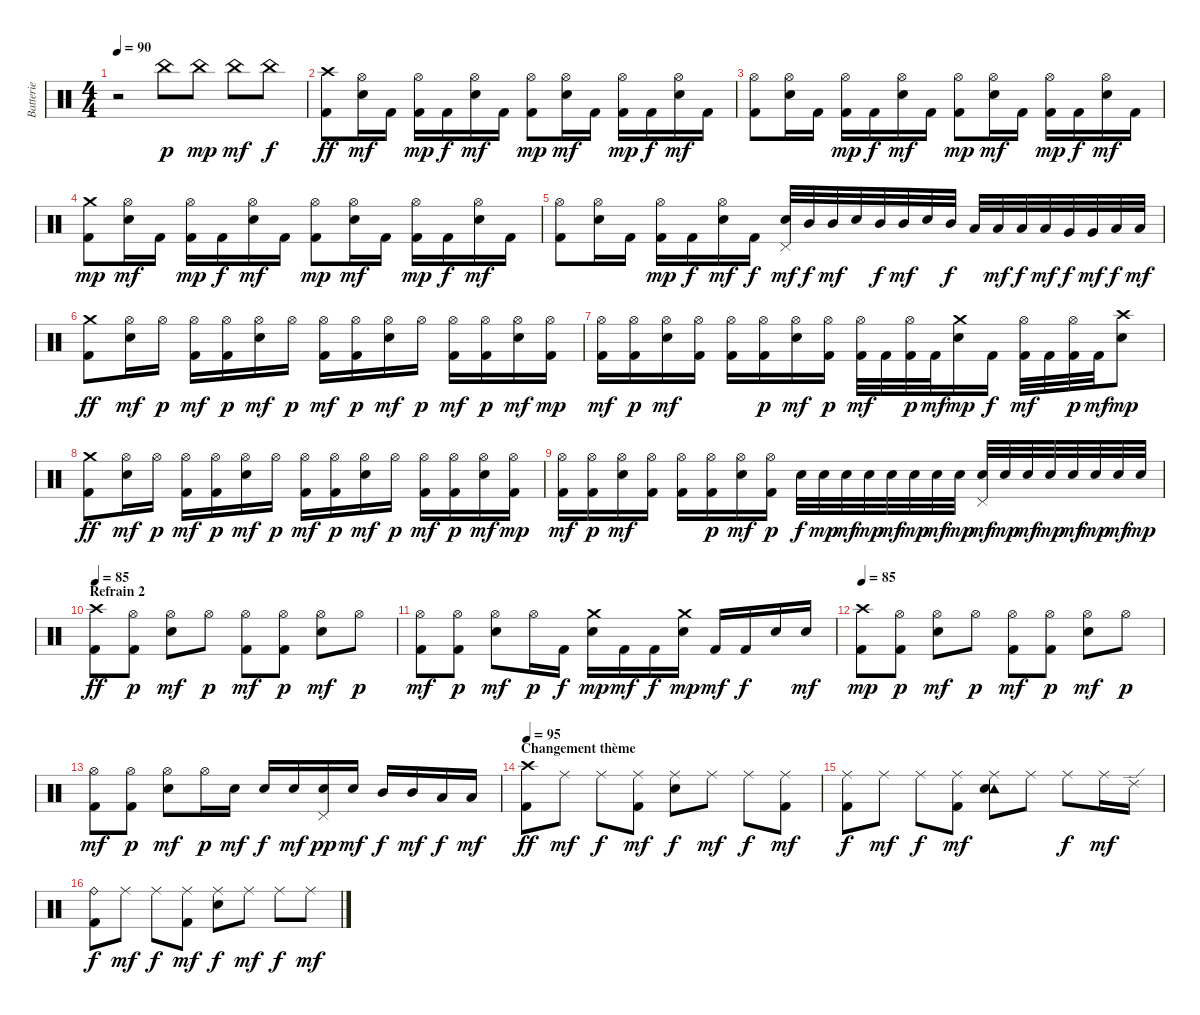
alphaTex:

\track ("Batterie" "Batterie") {instrument percussion}
\staff {score}
\articulation defaults
\ts (4 4)
\tempo 90
\clef neutral
\ks c
r.2{dy f} "China (hit)".8{dy p} "China (hit)".8{dy mp} "China (hit)".8{dy mf} "China (hit)".8{dy f} |
("Crash high (hit)" "Kick (hit) 2").8{dy ff} ("Hi-Hat (open)" "Electric Snare (hit)").16{dy mf} "Kick (hit) 2".16 ("Hi-Hat (open)" "Kick (hit) 2").16{dy mp} "Kick (hit) 2".16{dy f} ("Hi-Hat (open)" "Electric Snare (hit)").16{dy mf} "Kick (hit) 2".16 ("Hi-Hat (open)" "Kick (hit) 2").8{dy mp} ("Hi-Hat (open)" "Electric Snare (hit)").16{dy mf} "Kick (hit) 2".16 ("Hi-Hat (open)" "Kick (hit) 2").16{dy mp} "Kick (hit) 2".16{dy f} ("Hi-Hat (open)" "Electric Snare (hit)").16{dy mf} "Kick (hit) 2".16 |
("Hi-Hat (open)" "Kick (hit) 2").8 ("Hi-Hat (open)" "Electric Snare (hit)").16 "Kick (hit) 2".16 ("Hi-Hat (open)" "Kick (hit) 2").16{dy mp} "Kick (hit) 2".16{dy f} ("Hi-Hat (open)" "Electric Snare (hit)").16{dy mf} "Kick (hit) 2".16 ("Hi-Hat (open)" "Kick (hit) 2").8{dy mp} ("Hi-Hat (open)" "Electric Snare (hit)").16{dy mf} "Kick (hit) 2".16 ("Hi-Hat (open)" "Kick (hit) 2").16{dy mp} "Kick (hit) 2".16{dy f} ("Hi-Hat (open)" "Electric Snare (hit)").16{dy mf} "Kick (hit) 2".16 |
("Crash medium (hit)" "Kick (hit) 2").8{dy mp} ("Hi-Hat (open)" "Electric Snare (hit)").16{dy mf} "Kick (hit) 2".16 ("Hi-Hat (open)" "Kick (hit) 2").16{dy mp} "Kick (hit) 2".16{dy f} ("Hi-Hat (open)" "Electric Snare (hit)").16{dy mf} "Kick (hit) 2".16 ("Hi-Hat (open)" "Kick (hit) 2").8{dy mp} ("Hi-Hat (open)" "Electric Snare (hit)").16{dy mf} "Kick (hit) 2".16 ("Hi-Hat (open)" "Kick (hit) 2").16{dy mp} "Kick (hit) 2".16{dy f} ("Hi-Hat (open)" "Electric Snare (hit)").16{dy mf} "Kick (hit) 2".16 |
("Hi-Hat (open)" "Kick (hit) 2").8 ("Hi-Hat (open)" "Electric Snare (hit)").16 "Kick (hit) 2".16 ("Hi-Hat (open)" "Kick (hit) 2").16{dy mp} "Kick (hit) 2".16{dy f} ("Hi-Hat (open)" "Electric Snare (hit)").16{dy mf} "Kick (hit) 2".16{dy f} ("Pedal Hi-Hat (hit)" "Electric Snare (hit)").32{dy mf} "Mid Tom (hit)".32{dy f} "Mid Tom (hit)".32{dy mf} "Electric Snare (hit)".32 "Mid Tom (hit)".32{dy f} "Mid Tom (hit)".32{dy mf} "Electric Snare (hit)".32 "Mid Tom (hit)".32{dy f} "Low Tom (hit)".32 "Low Tom (hit)".32{dy mf} "Low Tom (hit)".32{dy f} "Low Tom (hit)".32{dy mf} "Very Low Tom (hit)".32{dy f} "Very Low Tom (hit)".32{dy mf} "Low Floor Tom (hit)".32{dy f} "Low Floor Tom (hit)".32{dy mf} |
("Crash medium (hit)" "Kick (hit) 2").8{dy ff} ("Hi-Hat (open)" "Electric Snare (hit)").16{dy mf} "Hi-Hat (open)".16{dy p} ("Hi-Hat (open)" "Kick (hit) 2").16{dy mf} ("Hi-Hat (open)" "Kick (hit) 2").16{dy p} ("Hi-Hat (open)" "Electric Snare (hit)").16{dy mf} "Hi-Hat (open)".16{dy p} ("Hi-Hat (open)" "Kick (hit) 2").16{dy mf} ("Hi-Hat (open)" "Kick (hit) 2").16{dy p} ("Hi-Hat (open)" "Electric Snare (hit)").16{dy mf} "Hi-Hat (open)".16{dy p} ("Hi-Hat (open)" "Kick (hit) 2").16{dy mf} ("Hi-Hat (open)" "Kick (hit) 2").16{dy p} ("Hi-Hat (open)" "Electric Snare (hit)").16{dy mf} ("Hi-Hat (open)" "Kick (hit) 2").16{dy mp} |
("Hi-Hat (open)" "Kick (hit) 2").16{dy mf} ("Hi-Hat (open)" "Kick (hit) 2").16{dy p} ("Hi-Hat (open)" "Electric Snare (hit)").16{dy mf} ("Hi-Hat (open)" "Kick (hit) 2").16 ("Hi-Hat (open)" "Kick (hit) 2").16 ("Hi-Hat (open)" "Kick (hit) 2").16{dy p} ("Hi-Hat (open)" "Electric Snare (hit)").16{dy mf} ("Hi-Hat (open)" "Kick (hit) 2").16{dy p} ("Hi-Hat (open)" "Kick (hit) 2").32{dy mf} "Kick (hit) 2".32 ("Hi-Hat (open)" "Kick (hit) 2").32{dy p} "Kick (hit) 2".32{dy mf} ("Crash medium (hit)" "Electric Snare (hit)").16{dy mp} "Kick (hit) 2".16{dy f} ("Hi-Hat (open)" "Kick (hit) 2").32{dy mf} "Kick (hit) 2".32 ("Hi-Hat (open)" "Kick (hit) 2").32{dy p} "Kick (hit) 2".32{dy mf} ("Crash high (hit)" "Electric Snare (hit)").8{dy mp} |
("Crash medium (hit)" "Kick (hit) 2").8{dy ff} ("Hi-Hat (open)" "Electric Snare (hit)").16{dy mf} "Hi-Hat (open)".16{dy p} ("Hi-Hat (open)" "Kick (hit) 2").16{dy mf} ("Hi-Hat (open)" "Kick (hit) 2").16{dy p} ("Hi-Hat (open)" "Electric Snare (hit)").16{dy mf} "Hi-Hat (open)".16{dy p} ("Hi-Hat (open)" "Kick (hit) 2").16{dy mf} ("Hi-Hat (open)" "Kick (hit) 2").16{dy p} ("Hi-Hat (open)" "Electric Snare (hit)").16{dy mf} "Hi-Hat (open)".16{dy p} ("Hi-Hat (open)" "Kick (hit) 2").16{dy mf} ("Hi-Hat (open)" "Kick (hit) 2").16{dy p} ("Hi-Hat (open)" "Electric Snare (hit)").16{dy mf} ("Hi-Hat (open)" "Kick (hit) 2").16{dy mp} |
("Hi-Hat (open)" "Kick (hit) 2").16{dy mf} ("Hi-Hat (open)" "Kick (hit) 2").16{dy p} ("Hi-Hat (open)" "Electric Snare (hit)").16{dy mf} ("Hi-Hat (open)" "Kick (hit) 2").16 ("Hi-Hat (open)" "Kick (hit) 2").16 ("Hi-Hat (open)" "Kick (hit) 2").16{dy p} ("Hi-Hat (open)" "Electric Snare (hit)").16{dy mf} ("Hi-Hat (open)" "Kick (hit) 2").16{dy p} "Electric Snare (hit)".32{dy f} "Electric Snare (hit)".32{dy mp} "Electric Snare (hit)".32{dy mf} "Electric Snare (hit)".32{dy mp} "Electric Snare (hit)".32{dy mf} "Electric Snare (hit)".32{dy mp} "Electric Snare (hit)".32{dy mf} "Electric Snare (hit)".32{dy mp} ("Pedal Hi-Hat (hit)" "Electric Snare (hit)").32{dy mf} "Electric Snare (hit)".32{dy mp} "Electric Snare (hit)".32{dy mf} "Electric Snare (hit)".32{dy mp} "Electric Snare (hit)".32{dy mf} "Electric Snare (hit)".32{dy mp} "Electric Snare (hit)".32{dy mf} "Electric Snare (hit)".32{dy mp} |
\section ("" "Refrain 2")
\tempo 85
("Crash high (hit)" "Kick (hit) 2").8{dy ff} ("Hi-Hat (open)" "Kick (hit) 2").8{dy p} ("Hi-Hat (open)" "Electric Snare (hit)").8{dy mf} "Hi-Hat (open)".8{dy p} ("Hi-Hat (open)" "Kick (hit) 2").8{dy mf} ("Hi-Hat (open)" "Kick (hit) 2").8{dy p} ("Hi-Hat (open)" "Electric Snare (hit)").8{dy mf} "Hi-Hat (open)".8{dy p} |
("Hi-Hat (open)" "Kick (hit) 2").8{dy mf} ("Hi-Hat (open)" "Kick (hit) 2").8{dy p} ("Hi-Hat (open)" "Electric Snare (hit)").8{dy mf} "Hi-Hat (open)".16{dy p} "Kick (hit) 2".16{dy f} ("Crash medium (hit)" "Electric Snare (hit)").16{dy mp} "Kick (hit) 2".16{dy mf} "Kick (hit) 2".16{dy f} ("Crash medium (hit)" "Electric Snare (hit)").16{dy mp} "Kick (hit) 2".16{dy mf} "Kick (hit) 2".16{dy f} "Electric Snare (hit)".16 "Electric Snare (hit)".16{dy mf} |
\tempo 85
("Crash high (hit)" "Kick (hit) 2").8{dy mp} ("Hi-Hat (open)" "Kick (hit) 2").8{dy p} ("Hi-Hat (open)" "Electric Snare (hit)").8{dy mf} "Hi-Hat (open)".8{dy p} ("Hi-Hat (open)" "Kick (hit) 2").8{dy mf} ("Hi-Hat (open)" "Kick (hit) 2").8{dy p} ("Hi-Hat (open)" "Electric Snare (hit)").8{dy mf} "Hi-Hat (open)".8{dy p} |
("Hi-Hat (open)" "Kick (hit) 2").8{dy mf} ("Hi-Hat (open)" "Kick (hit) 2").8{dy p} ("Hi-Hat (open)" "Electric Snare (hit)").8{dy mf} "Hi-Hat (open)".16{dy p} "Electric Snare (hit)".16{dy mf} "Electric Snare (hit)".16{dy f} "Electric Snare (hit)".16{dy mf} ("Pedal Hi-Hat (hit)" "Electric Snare (hit)").16{dy pp} "Electric Snare (hit)".16{dy mf} "Mid Tom (hit)".16{dy f} "Mid Tom (hit)".16{dy mf} "Low Tom (hit)".16{dy f} "Low Tom (hit)".16{dy mf} |
\section ("" "Changement thème")
\tempo 95
("Crash high (hit)" "Kick (hit) 2").8{dy ff} "Ride (middle)".8{dy mf} "Ride (middle)".8{dy f} ("Ride (middle)" "Kick (hit) 2").8{dy mf} ("Ride (middle)" "Electric Snare (hit)").8{dy f} "Ride (middle)".8{dy mf} "Ride (middle)".8{dy f} ("Ride (middle)" "Kick (hit) 2").8{dy mf} |
("Ride (middle)" "Kick (hit) 2").8{dy f} "Ride (middle)".8{dy mf} "Ride (middle)".8{dy f} ("Ride (middle)" "Kick (hit) 2").8{dy mf} ("Ride (middle)" "Tambourine (hit)" "Electric Snare (hit)").8 "Ride (middle)".8 "Ride (middle)".8{dy f} "Ride (middle)".16{dy mf} "Ride (edge) 2".16 |
("Ride (bell)" "Kick (hit) 2").8{dy f} "Ride (middle)".8{dy mf} "Ride (middle)".8{dy f} ("Ride (middle)" "Kick (hit) 2").8{dy mf} ("Ride (middle)" "Electric Snare (hit)").8{dy f} "Ride (middle)".8{dy mf} "Ride (middle)".8{dy f} "Ride (middle)".8{dy mf}
